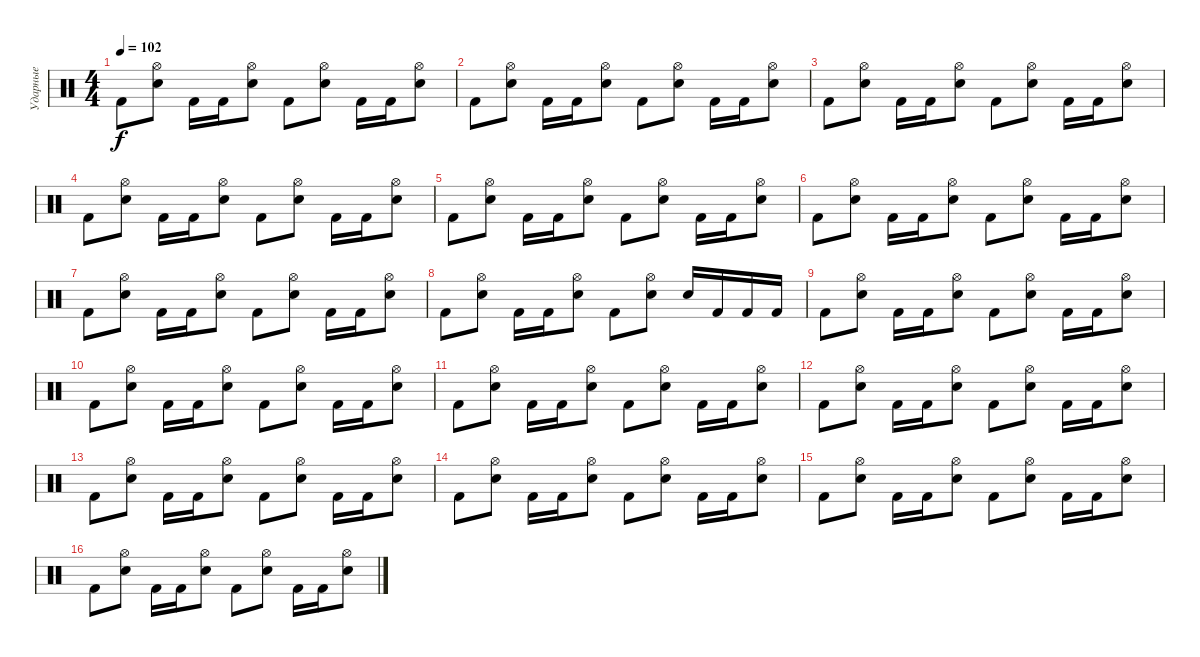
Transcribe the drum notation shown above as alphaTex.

\track ("Ударные" "Ударные") {instrument percussion}
\staff {score}
\articulation defaults
\ts (4 4)
\tempo 102
\clef neutral
\ks c "Kick (hit) 2".8{dy f}
("Electric Snare (hit)" "Hi-Hat (open)").8 "Kick (hit) 2".16 "Kick (hit) 2".16 ("Electric Snare (hit)" "Hi-Hat (open)").8 "Kick (hit) 2".8 ("Electric Snare (hit)" "Hi-Hat (open)").8 "Kick (hit) 2".16 "Kick (hit) 2".16 ("Electric Snare (hit)" "Hi-Hat (open)").8 |
"Kick (hit) 2".8 ("Electric Snare (hit)" "Hi-Hat (open)").8 "Kick (hit) 2".16 "Kick (hit) 2".16 ("Electric Snare (hit)" "Hi-Hat (open)").8 "Kick (hit) 2".8 ("Electric Snare (hit)" "Hi-Hat (open)").8 "Kick (hit) 2".16 "Kick (hit) 2".16 ("Electric Snare (hit)" "Hi-Hat (open)").8 |
"Kick (hit) 2".8 ("Electric Snare (hit)" "Hi-Hat (open)").8 "Kick (hit) 2".16 "Kick (hit) 2".16 ("Electric Snare (hit)" "Hi-Hat (open)").8 "Kick (hit) 2".8 ("Electric Snare (hit)" "Hi-Hat (open)").8 "Kick (hit) 2".16 "Kick (hit) 2".16 ("Electric Snare (hit)" "Hi-Hat (open)").8 |
"Kick (hit) 2".8 ("Electric Snare (hit)" "Hi-Hat (open)").8 "Kick (hit) 2".16 "Kick (hit) 2".16 ("Electric Snare (hit)" "Hi-Hat (open)").8 "Kick (hit) 2".8 ("Electric Snare (hit)" "Hi-Hat (open)").8 "Kick (hit) 2".16 "Kick (hit) 2".16 ("Electric Snare (hit)" "Hi-Hat (open)").8 |
"Kick (hit) 2".8 ("Electric Snare (hit)" "Hi-Hat (open)").8 "Kick (hit) 2".16 "Kick (hit) 2".16 ("Electric Snare (hit)" "Hi-Hat (open)").8 "Kick (hit) 2".8 ("Electric Snare (hit)" "Hi-Hat (open)").8 "Kick (hit) 2".16 "Kick (hit) 2".16 ("Electric Snare (hit)" "Hi-Hat (open)").8 |
"Kick (hit) 2".8 ("Electric Snare (hit)" "Hi-Hat (open)").8 "Kick (hit) 2".16 "Kick (hit) 2".16 ("Electric Snare (hit)" "Hi-Hat (open)").8 "Kick (hit) 2".8 ("Electric Snare (hit)" "Hi-Hat (open)").8 "Kick (hit) 2".16 "Kick (hit) 2".16 ("Electric Snare (hit)" "Hi-Hat (open)").8 |
"Kick (hit) 2".8 ("Electric Snare (hit)" "Hi-Hat (open)").8 "Kick (hit) 2".16 "Kick (hit) 2".16 ("Electric Snare (hit)" "Hi-Hat (open)").8 "Kick (hit) 2".8 ("Electric Snare (hit)" "Hi-Hat (open)").8 "Kick (hit) 2".16 "Kick (hit) 2".16 ("Electric Snare (hit)" "Hi-Hat (open)").8 |
"Kick (hit) 2".8 ("Electric Snare (hit)" "Hi-Hat (open)").8 "Kick (hit) 2".16 "Kick (hit) 2".16 ("Electric Snare (hit)" "Hi-Hat (open)").8 "Kick (hit) 2".8 ("Electric Snare (hit)" "Hi-Hat (open)").8 "Electric Snare (hit)".16 "Kick (hit) 2".16 "Kick (hit) 2".16 "Kick (hit) 2".16 |
"Kick (hit) 2".8 ("Electric Snare (hit)" "Hi-Hat (open)").8 "Kick (hit) 2".16 "Kick (hit) 2".16 ("Electric Snare (hit)" "Hi-Hat (open)").8 "Kick (hit) 2".8 ("Electric Snare (hit)" "Hi-Hat (open)").8 "Kick (hit) 2".16 "Kick (hit) 2".16 ("Electric Snare (hit)" "Hi-Hat (open)").8 |
"Kick (hit) 2".8 ("Electric Snare (hit)" "Hi-Hat (open)").8 "Kick (hit) 2".16 "Kick (hit) 2".16 ("Electric Snare (hit)" "Hi-Hat (open)").8 "Kick (hit) 2".8 ("Electric Snare (hit)" "Hi-Hat (open)").8 "Kick (hit) 2".16 "Kick (hit) 2".16 ("Electric Snare (hit)" "Hi-Hat (open)").8 |
"Kick (hit) 2".8 ("Electric Snare (hit)" "Hi-Hat (open)").8 "Kick (hit) 2".16 "Kick (hit) 2".16 ("Electric Snare (hit)" "Hi-Hat (open)").8 "Kick (hit) 2".8 ("Electric Snare (hit)" "Hi-Hat (open)").8 "Kick (hit) 2".16 "Kick (hit) 2".16 ("Electric Snare (hit)" "Hi-Hat (open)").8 |
"Kick (hit) 2".8 ("Electric Snare (hit)" "Hi-Hat (open)").8 "Kick (hit) 2".16 "Kick (hit) 2".16 ("Electric Snare (hit)" "Hi-Hat (open)").8 "Kick (hit) 2".8 ("Electric Snare (hit)" "Hi-Hat (open)").8 "Kick (hit) 2".16 "Kick (hit) 2".16 ("Electric Snare (hit)" "Hi-Hat (open)").8 |
"Kick (hit) 2".8 ("Electric Snare (hit)" "Hi-Hat (open)").8 "Kick (hit) 2".16 "Kick (hit) 2".16 ("Electric Snare (hit)" "Hi-Hat (open)").8 "Kick (hit) 2".8 ("Electric Snare (hit)" "Hi-Hat (open)").8 "Kick (hit) 2".16 "Kick (hit) 2".16 ("Electric Snare (hit)" "Hi-Hat (open)").8 |
"Kick (hit) 2".8 ("Electric Snare (hit)" "Hi-Hat (open)").8 "Kick (hit) 2".16 "Kick (hit) 2".16 ("Electric Snare (hit)" "Hi-Hat (open)").8 "Kick (hit) 2".8 ("Electric Snare (hit)" "Hi-Hat (open)").8 "Kick (hit) 2".16 "Kick (hit) 2".16 ("Electric Snare (hit)" "Hi-Hat (open)").8 |
"Kick (hit) 2".8 ("Electric Snare (hit)" "Hi-Hat (open)").8 "Kick (hit) 2".16 "Kick (hit) 2".16 ("Electric Snare (hit)" "Hi-Hat (open)").8 "Kick (hit) 2".8 ("Electric Snare (hit)" "Hi-Hat (open)").8 "Kick (hit) 2".16 "Kick (hit) 2".16 ("Electric Snare (hit)" "Hi-Hat (open)").8 |
"Kick (hit) 2".8 ("Electric Snare (hit)" "Hi-Hat (open)").8 "Kick (hit) 2".16 "Kick (hit) 2".16 ("Electric Snare (hit)" "Hi-Hat (open)").8 "Kick (hit) 2".8 ("Electric Snare (hit)" "Hi-Hat (open)").8 "Kick (hit) 2".16 "Kick (hit) 2".16 ("Electric Snare (hit)" "Hi-Hat (open)").8
